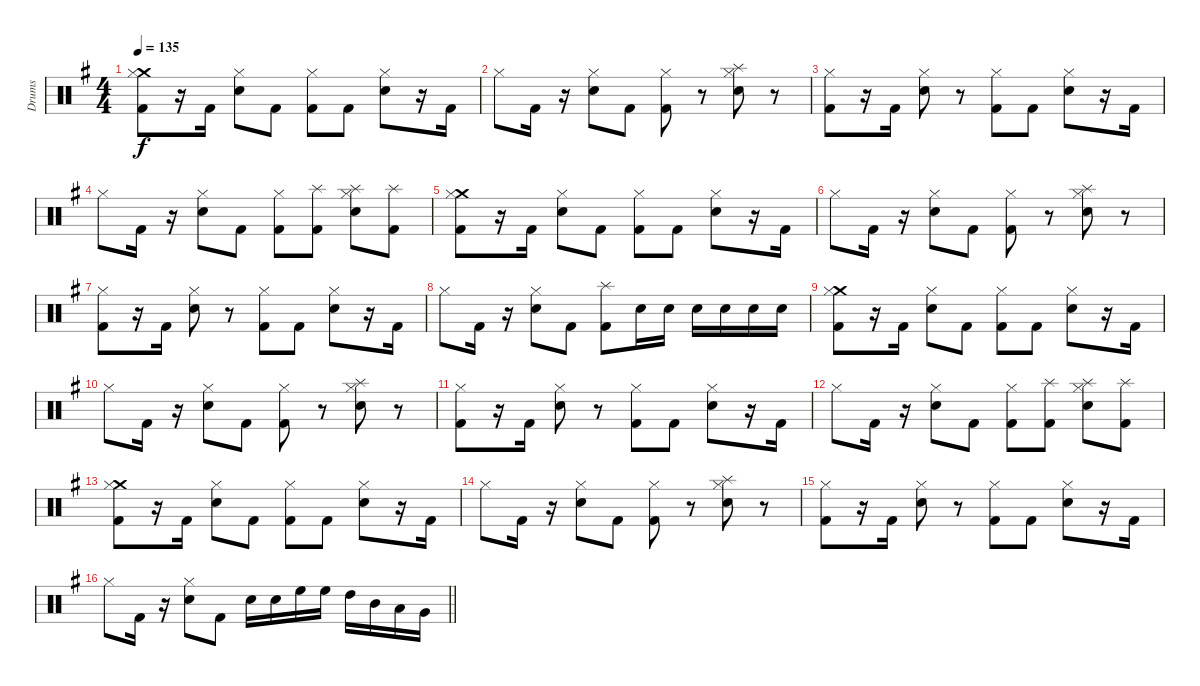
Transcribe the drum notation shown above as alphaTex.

\track ("Drums" "Drums") {instrument percussion}
\staff {score}
\articulation defaults
\ts (4 4)
\section ("" "")
\tempo 135
\clef neutral
\ks eminor
("Crash medium (hit)" "Hi-Hat (closed)" "Kick (hit) 2").8{dy f} r.16 "Kick (hit) 2".16 ("Hi-Hat (closed)" "Electric Snare (hit)").8 "Kick (hit) 2".8 ("Hi-Hat (closed)" "Kick (hit) 2").8 "Kick (hit) 2".8 ("Hi-Hat (closed)" "Electric Snare (hit)").8 r.16 "Kick (hit) 2".16 |
"Hi-Hat (closed)".8 "Kick (hit) 2".16 r.16 ("Hi-Hat (closed)" "Electric Snare (hit)").8 "Kick (hit) 2".8 ("Hi-Hat (closed)" "Kick (hit) 2").8 r.8 ("Splash (hit)" "Hi-Hat (closed)" "Electric Snare (hit)").8 r.8 |
("Hi-Hat (closed)" "Kick (hit) 2").8 r.16 "Kick (hit) 2".16 ("Hi-Hat (closed)" "Electric Snare (hit)").8 r.8 ("Hi-Hat (closed)" "Kick (hit) 2").8 "Kick (hit) 2".8 ("Hi-Hat (closed)" "Electric Snare (hit)").8 r.16 "Kick (hit) 2".16 |
"Hi-Hat (closed)".8 "Kick (hit) 2".16 r.16 ("Hi-Hat (closed)" "Electric Snare (hit)").8 "Kick (hit) 2".8 ("Hi-Hat (closed)" "Kick (hit) 2").8 ("Splash (hit)" "Kick (hit) 2").8 ("Splash (hit)" "Hi-Hat (closed)" "Electric Snare (hit)").8 ("Splash (hit)" "Kick (hit) 2").8 |
("Crash medium (hit)" "Hi-Hat (closed)" "Kick (hit) 2").8 r.16 "Kick (hit) 2".16 ("Hi-Hat (closed)" "Electric Snare (hit)").8 "Kick (hit) 2".8 ("Hi-Hat (closed)" "Kick (hit) 2").8 "Kick (hit) 2".8 ("Hi-Hat (closed)" "Electric Snare (hit)").8 r.16 "Kick (hit) 2".16 |
"Hi-Hat (closed)".8 "Kick (hit) 2".16 r.16 ("Hi-Hat (closed)" "Electric Snare (hit)").8 "Kick (hit) 2".8 ("Hi-Hat (closed)" "Kick (hit) 2").8 r.8 ("Splash (hit)" "Hi-Hat (closed)" "Electric Snare (hit)").8 r.8 |
("Hi-Hat (closed)" "Kick (hit) 2").8 r.16 "Kick (hit) 2".16 ("Hi-Hat (closed)" "Electric Snare (hit)").8 r.8 ("Hi-Hat (closed)" "Kick (hit) 2").8 "Kick (hit) 2".8 ("Hi-Hat (closed)" "Electric Snare (hit)").8 r.16 "Kick (hit) 2".16 |
"Hi-Hat (closed)".8 "Kick (hit) 2".16 r.16 ("Hi-Hat (closed)" "Electric Snare (hit)").8 "Kick (hit) 2".8 ("Splash (hit)" "Kick (hit) 2").8 "Electric Snare (hit)".16 "Electric Snare (hit)".16 "Electric Snare (hit)".16 "Electric Snare (hit)".16 "Electric Snare (hit)".16 "Electric Snare (hit)".16 |
("Crash medium (hit)" "Hi-Hat (closed)" "Kick (hit) 2").8 r.16 "Kick (hit) 2".16 ("Hi-Hat (closed)" "Electric Snare (hit)").8 "Kick (hit) 2".8 ("Hi-Hat (closed)" "Kick (hit) 2").8 "Kick (hit) 2".8 ("Hi-Hat (closed)" "Electric Snare (hit)").8 r.16 "Kick (hit) 2".16 |
"Hi-Hat (closed)".8 "Kick (hit) 2".16 r.16 ("Hi-Hat (closed)" "Electric Snare (hit)").8 "Kick (hit) 2".8 ("Hi-Hat (closed)" "Kick (hit) 2").8 r.8 ("Splash (hit)" "Hi-Hat (closed)" "Electric Snare (hit)").8 r.8 |
("Hi-Hat (closed)" "Kick (hit) 2").8 r.16 "Kick (hit) 2".16 ("Hi-Hat (closed)" "Electric Snare (hit)").8 r.8 ("Hi-Hat (closed)" "Kick (hit) 2").8 "Kick (hit) 2".8 ("Hi-Hat (closed)" "Electric Snare (hit)").8 r.16 "Kick (hit) 2".16 |
"Hi-Hat (closed)".8 "Kick (hit) 2".16 r.16 ("Hi-Hat (closed)" "Electric Snare (hit)").8 "Kick (hit) 2".8 ("Hi-Hat (closed)" "Kick (hit) 2").8 ("Splash (hit)" "Kick (hit) 2").8 ("Splash (hit)" "Hi-Hat (closed)" "Electric Snare (hit)").8 ("Splash (hit)" "Kick (hit) 2").8 |
("Crash medium (hit)" "Hi-Hat (closed)" "Kick (hit) 2").8 r.16 "Kick (hit) 2".16 ("Hi-Hat (closed)" "Electric Snare (hit)").8 "Kick (hit) 2".8 ("Hi-Hat (closed)" "Kick (hit) 2").8 "Kick (hit) 2".8 ("Hi-Hat (closed)" "Electric Snare (hit)").8 r.16 "Kick (hit) 2".16 |
"Hi-Hat (closed)".8 "Kick (hit) 2".16 r.16 ("Hi-Hat (closed)" "Electric Snare (hit)").8 "Kick (hit) 2".8 ("Hi-Hat (closed)" "Kick (hit) 2").8 r.8 ("Splash (hit)" "Hi-Hat (closed)" "Electric Snare (hit)").8 r.8 |
("Hi-Hat (closed)" "Kick (hit) 2").8 r.16 "Kick (hit) 2".16 ("Hi-Hat (closed)" "Electric Snare (hit)").8 r.8 ("Hi-Hat (closed)" "Kick (hit) 2").8 "Kick (hit) 2".8 ("Hi-Hat (closed)" "Electric Snare (hit)").8 r.16 "Kick (hit) 2".16 |
\barLineRight lightlight "Hi-Hat (closed)".8 "Kick (hit) 2".16
r.16 ("Hi-Hat (closed)" "Electric Snare (hit)").8 "Kick (hit) 2".8 "Electric Snare (hit)".16 "Electric Snare (hit)".16 "High Floor Tom (hit)".16 "High Floor Tom (hit)".16 "High Tom (hit)".16 "Mid Tom (hit)".16 "Low Tom (hit)".16 "Very Low Tom (hit)".16
